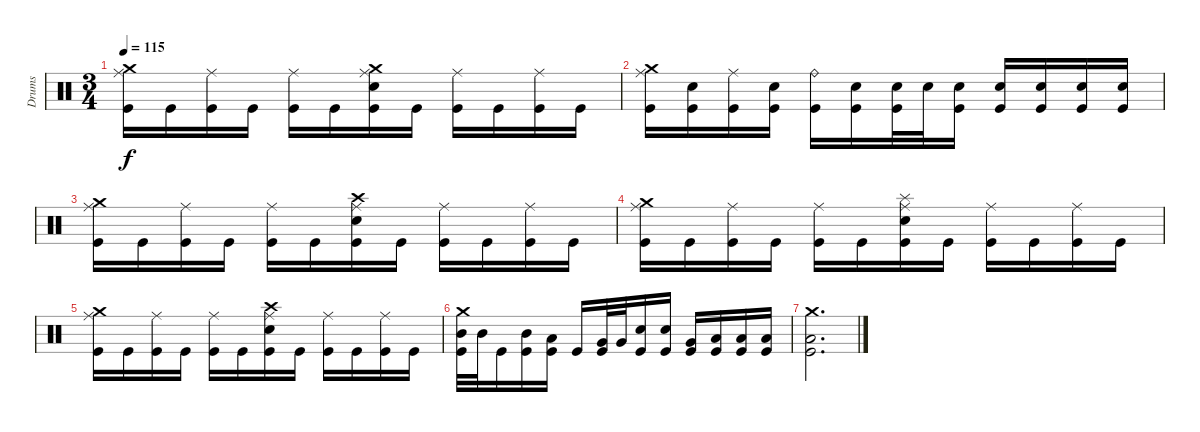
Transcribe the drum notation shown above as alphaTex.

\track ("Drums" "Drums") {instrument percussion}
\staff {score}
\articulation defaults
\ts (3 4)
\tempo 115
\clef neutral
\ks c
("Crash medium (hit)" "Ride (middle)" "Kick (hit)").16{dy f} "Kick (hit)".16 ("Ride (middle)" "Kick (hit)").16 "Kick (hit)".16 ("Ride (middle)" "Kick (hit)").16 "Kick (hit)".16 ("Crash medium (hit)" "Ride (middle)" "Electric Snare (hit)" "Kick (hit)").16 "Kick (hit)".16 ("Ride (middle)" "Kick (hit)").16 "Kick (hit)".16 ("Ride (middle)" "Kick (hit)").16 "Kick (hit)".16 |
("Crash medium (hit)" "Ride (middle)" "Kick (hit)").16 ("Electric Snare (hit)" "Kick (hit)").16 ("Ride (middle)" "Kick (hit)").16 ("Electric Snare (hit)" "Kick (hit)").16 ("Ride (bell)" "Kick (hit)").16 ("Electric Snare (hit)" "Kick (hit)").16 ("Electric Snare (hit)" "Kick (hit)").32 "Electric Snare (hit)".32 ("Electric Snare (hit)" "Kick (hit)").16 ("Electric Snare (hit)" "Kick (hit)").16 ("Electric Snare (hit)" "Kick (hit)").16 ("Electric Snare (hit)" "Kick (hit)").16 ("Electric Snare (hit)" "Kick (hit)").16 |
("Crash medium (hit)" "Ride (middle)" "Kick (hit)").16 "Kick (hit)".16 ("Ride (middle)" "Kick (hit)").16 "Kick (hit)".16 ("Ride (middle)" "Kick (hit)").16 "Kick (hit)".16 ("Crash high (hit)" "Ride (middle)" "Electric Snare (hit)" "Kick (hit)").16 "Kick (hit)".16 ("Ride (middle)" "Kick (hit)").16 "Kick (hit)".16 ("Ride (middle)" "Kick (hit)").16 "Kick (hit)".16 |
("Crash medium (hit)" "Ride (middle)" "Kick (hit)").16 "Kick (hit)".16 ("Ride (middle)" "Kick (hit)").16 "Kick (hit)".16 ("Ride (middle)" "Kick (hit)").16 "Kick (hit)".16 ("Splash (hit)" "Ride (middle)" "Electric Snare (hit)" "Kick (hit)").16 "Kick (hit)".16 ("Ride (middle)" "Kick (hit)").16 "Kick (hit)".16 ("Ride (middle)" "Kick (hit)").16 "Kick (hit)".16 |
("Crash medium (hit)" "Ride (middle)" "Kick (hit)").16 "Kick (hit)".16 ("Ride (middle)" "Kick (hit)").16 "Kick (hit)".16 ("Ride (middle)" "Kick (hit)").16 "Kick (hit)".16 ("Crash high (hit)" "Ride (middle)" "Electric Snare (hit)" "Kick (hit)").16 "Kick (hit)".16 ("Ride (middle)" "Kick (hit)").16 "Kick (hit)".16 ("Ride (middle)" "Kick (hit)").16 "Kick (hit)".16 |
("Crash medium (hit)" "Mid Tom (hit)" "Kick (hit)").32 "Mid Tom (hit)".32 "Kick (hit)".16 ("Mid Tom (hit)" "Kick (hit)").16 ("Low Tom (hit)" "Kick (hit)").16 "Kick (hit)".16 ("Very Low Tom (hit)" "Kick (hit)").32 "Very Low Tom (hit)".32 ("Electric Snare (hit)" "Kick (hit)").16 ("Electric Snare (hit)" "Kick (hit)").16 ("Very Low Tom (hit)" "Kick (hit)").16 ("Low Tom (hit)" "Kick (hit)").16 ("Low Floor Tom (hit)" "Kick (hit)").16 ("Low Floor Tom (hit)" "Kick (hit)").16 |
("Crash medium (hit)" "Low Floor Tom (hit)" "Kick (hit)").2{d}
